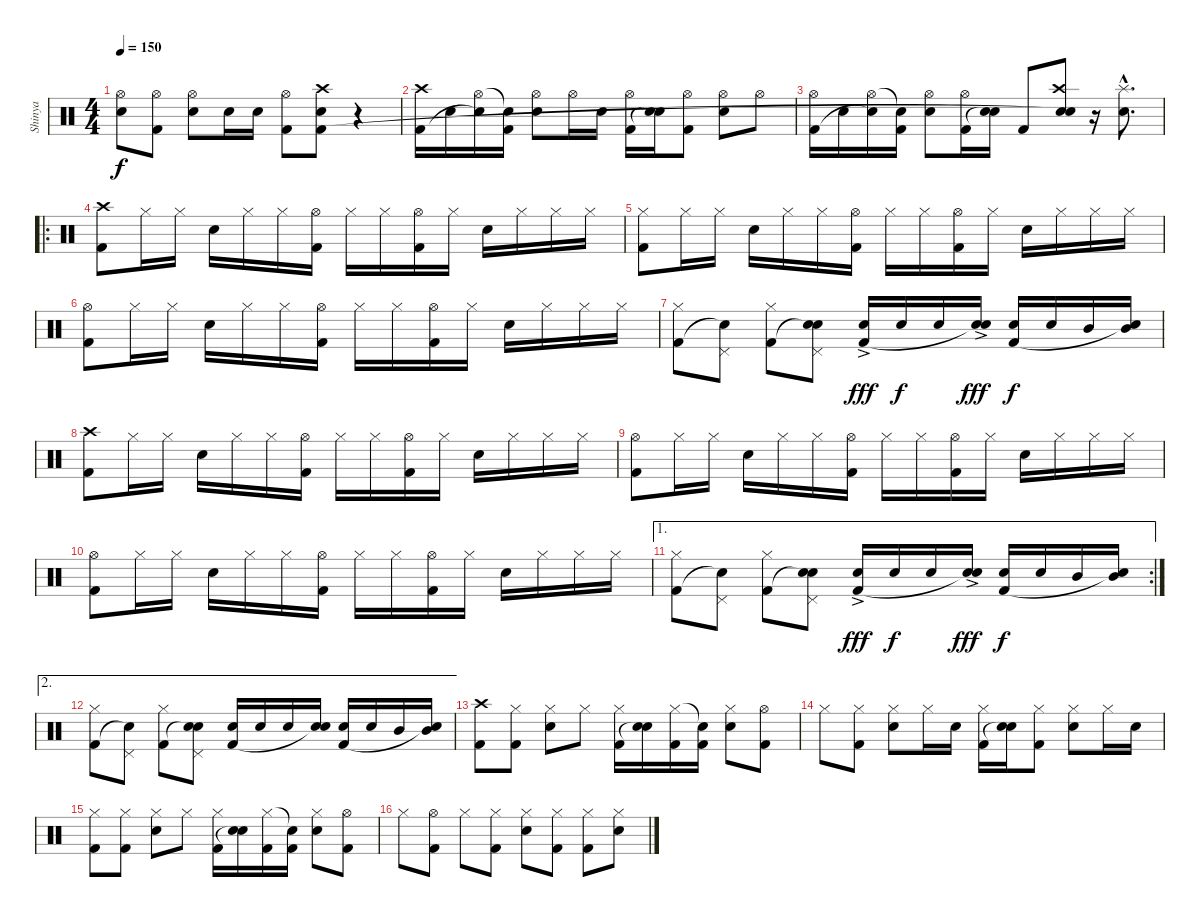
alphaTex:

\track ("Shinya" "Shinya") {instrument percussion}
\staff {score}
\articulation defaults
\ts (4 4)
\tempo 150
\clef neutral
\ks c
("Hi-Hat (open)" "Electric Snare (hit)").8{dy f} ("Hi-Hat (open)" "Kick (hit) 2").8 ("Hi-Hat (open)" "Electric Snare (hit)").8 "Electric Snare (hit)".16 "Electric Snare (hit)".16 ("Hi-Hat (open)" "Kick (hit) 2").8 ("Crash high (hit)" "Electric Snare (hit)" "Kick (hit) 2").8 r.4 |
("Crash high (hit)" "Kick (hit) 2").16 "Electric Snare (hit)".16 ("Hi-Hat (open)" "Snare (hit)"{t}).16 ("Snare (hit)"{t} "Kick (hit) 2").16 ("Hi-Hat (open)" "Electric Snare (hit)").8 "Hi-Hat (open)".16 "Electric Snare (hit)".16 ("Hi-Hat (open)" "Kick (hit) 2").16 ("Electric Snare (hit)" "Snare (hit)"{t}).16 ("Hi-Hat (open)" "Kick (hit) 2").8 ("Hi-Hat (open)" "Electric Snare (hit)").8 "Hi-Hat (open)".8 |
("Hi-Hat (open)" "Kick (hit) 2").16 "Electric Snare (hit)".16 ("Hi-Hat (open)" "Snare (hit)"{t}).16 ("Snare (hit)"{t} "Kick (hit) 2").16 ("Hi-Hat (open)" "Electric Snare (hit)").8 ("Hi-Hat (open)" "Kick (hit) 2").16 ("Electric Snare (hit)" "Snare (hit)"{t}).16 "Kick (hit) 2".8 ("Crash high (hit)" "Electric Snare (hit)" "Snare (hit)"{t}).8 r.16 ("Splash (hit)"{hac} "Electric Snare (hit)"{hac}).8{d} |
\ro
("Crash high (hit)" "Kick (hit) 2").8 "Hi-Hat (closed)".16 "Hi-Hat (closed)".16 "Electric Snare (hit)".16 "Hi-Hat (closed)".16 "Hi-Hat (closed)".16 ("Hi-Hat (open)" "Kick (hit) 2").16 "Hi-Hat (closed)".16 "Hi-Hat (closed)".16 ("Hi-Hat (open)" "Kick (hit) 2").16 "Hi-Hat (closed)".16 "Electric Snare (hit)".16 "Hi-Hat (closed)".16 "Hi-Hat (closed)".16 "Hi-Hat (closed)".16 |
("Hi-Hat (closed)" "Kick (hit) 2").8 "Hi-Hat (closed)".16 "Hi-Hat (closed)".16 "Electric Snare (hit)".16 "Hi-Hat (closed)".16 "Hi-Hat (closed)".16 ("Hi-Hat (open)" "Kick (hit) 2").16 "Hi-Hat (closed)".16 "Hi-Hat (closed)".16 ("Hi-Hat (open)" "Kick (hit) 2").16 "Hi-Hat (closed)".16 "Electric Snare (hit)".16 "Hi-Hat (closed)".16 "Hi-Hat (closed)".16 "Hi-Hat (closed)".16 |
("Hi-Hat (open)" "Kick (hit) 2").8 "Hi-Hat (closed)".16 "Hi-Hat (closed)".16 "Electric Snare (hit)".16 "Hi-Hat (closed)".16 "Hi-Hat (closed)".16 ("Hi-Hat (open)" "Kick (hit) 2").16 "Hi-Hat (closed)".16 "Hi-Hat (closed)".16 ("Hi-Hat (open)" "Kick (hit) 2").16 "Hi-Hat (closed)".16 "Electric Snare (hit)".16 "Hi-Hat (closed)".16 "Hi-Hat (closed)".16 "Hi-Hat (closed)".16 |
("Hi-Hat (closed)" "Kick (hit) 2").8 ("Pedal Hi-Hat (hit)" "Snare (hit)"{t}).8 ("Hi-Hat (closed)" "Kick (hit) 2").8 ("Pedal Hi-Hat (hit)" "Snare (hit)"{t} "Electric Snare (hit)").8 ("Electric Snare (hit)"{ac} "Kick (hit) 2").16{dy fff} "Electric Snare (hit)".16{dy f} "Electric Snare (hit)".16 ("Electric Snare (hit)"{ac} "Snare (hit)"{t}).16{dy fff} ("Electric Snare (hit)" "Kick (hit) 2").16{dy f} "Electric Snare (hit)".16 "Mid Tom (hit)".16 ("Mid Tom (hit)" "Snare (hit)"{t}).16 |
("Crash high (hit)" "Kick (hit) 2").8 "Hi-Hat (closed)".16 "Hi-Hat (closed)".16 "Electric Snare (hit)".16 "Hi-Hat (closed)".16 "Hi-Hat (closed)".16 ("Hi-Hat (open)" "Kick (hit) 2").16 "Hi-Hat (closed)".16 "Hi-Hat (closed)".16 ("Hi-Hat (open)" "Kick (hit) 2").16 "Hi-Hat (closed)".16 "Electric Snare (hit)".16 "Hi-Hat (closed)".16 "Hi-Hat (closed)".16 "Hi-Hat (closed)".16 |
("Hi-Hat (open)" "Kick (hit) 2").8 "Hi-Hat (closed)".16 "Hi-Hat (closed)".16 "Electric Snare (hit)".16 "Hi-Hat (closed)".16 "Hi-Hat (closed)".16 ("Hi-Hat (open)" "Kick (hit) 2").16 "Hi-Hat (closed)".16 "Hi-Hat (closed)".16 ("Hi-Hat (open)" "Kick (hit) 2").16 "Hi-Hat (closed)".16 "Electric Snare (hit)".16 "Hi-Hat (closed)".16 "Hi-Hat (closed)".16 "Hi-Hat (closed)".16 |
("Hi-Hat (open)" "Kick (hit) 2").8 "Hi-Hat (closed)".16 "Hi-Hat (closed)".16 "Electric Snare (hit)".16 "Hi-Hat (closed)".16 "Hi-Hat (closed)".16 ("Hi-Hat (open)" "Kick (hit) 2").16 "Hi-Hat (closed)".16 "Hi-Hat (closed)".16 ("Hi-Hat (open)" "Kick (hit) 2").16 "Hi-Hat (closed)".16 "Electric Snare (hit)".16 "Hi-Hat (closed)".16 "Hi-Hat (closed)".16 "Hi-Hat (closed)".16 |
\ae 1
\rc 2
("Hi-Hat (closed)" "Kick (hit) 2").8 ("Pedal Hi-Hat (hit)" "Snare (hit)"{t}).8 ("Hi-Hat (closed)" "Kick (hit) 2").8 ("Pedal Hi-Hat (hit)" "Snare (hit)"{t} "Electric Snare (hit)").8 ("Electric Snare (hit)"{ac} "Kick (hit) 2").16{dy fff} "Electric Snare (hit)".16{dy f} "Electric Snare (hit)".16 ("Electric Snare (hit)"{ac} "Snare (hit)"{t}).16{dy fff} ("Electric Snare (hit)" "Kick (hit) 2").16{dy f} "Electric Snare (hit)".16 "Mid Tom (hit)".16 ("Mid Tom (hit)" "Snare (hit)"{t}).16 |
\ae 2
("Hi-Hat (closed)" "Kick (hit) 2").8 ("Pedal Hi-Hat (hit)" "Snare (hit)"{t}).8 ("Hi-Hat (closed)" "Kick (hit) 2").8 ("Pedal Hi-Hat (hit)" "Electric Snare (hit)"{t} "Electric Snare (hit)").8 ("Electric Snare (hit)" "Kick (hit) 2").16 "Electric Snare (hit)".16 "Electric Snare (hit)".16 ("Electric Snare (hit)" "Snare (hit)"{t}).16 ("Electric Snare (hit)" "Kick (hit) 2").16 "Electric Snare (hit)".16 "Mid Tom (hit)".16 ("Mid Tom (hit)" "Snare (hit)"{t}).16 |
("Crash high (hit)" "Kick (hit) 2").8 ("Hi-Hat (closed)" "Kick (hit) 2").8 ("Hi-Hat (closed)" "Electric Snare (hit)").8 "Hi-Hat (closed)".8 ("Hi-Hat (closed)" "Kick (hit) 2").16 ("Electric Snare (hit)" "Snare (hit)"{t}).16 ("Hi-Hat (closed)" "Kick (hit) 2").16 ("Snare (hit)"{t} "Kick (hit) 2").16 ("Hi-Hat (closed)" "Electric Snare (hit)").8 ("Hi-Hat (open)" "Kick (hit) 2").8 |
"Hi-Hat (closed)".8 ("Hi-Hat (closed)" "Kick (hit) 2").8 ("Hi-Hat (closed)" "Electric Snare (hit)").8 "Hi-Hat (closed)".16 "Electric Snare (hit)".16 ("Hi-Hat (closed)" "Kick (hit) 2").16 ("Electric Snare (hit)" "Snare (hit)"{t}).16 ("Hi-Hat (closed)" "Kick (hit) 2").8 ("Hi-Hat (closed)" "Electric Snare (hit)").8 "Hi-Hat (closed)".16 "Electric Snare (hit)".16 |
("Hi-Hat (closed)" "Kick (hit) 2").8 ("Hi-Hat (closed)" "Kick (hit) 2").8 ("Hi-Hat (closed)" "Electric Snare (hit)").8 "Hi-Hat (closed)".8 ("Hi-Hat (closed)" "Kick (hit) 2").16 ("Electric Snare (hit)" "Snare (hit)"{t}).16 ("Hi-Hat (closed)" "Kick (hit) 2").16 ("Snare (hit)"{t} "Kick (hit) 2").16 ("Hi-Hat (closed)" "Electric Snare (hit)").8 ("Hi-Hat (open)" "Kick (hit) 2").8 |
"Hi-Hat (closed)".8 ("Hi-Hat (open)" "Kick (hit) 2").8 "Hi-Hat (closed)".8 ("Hi-Hat (closed)" "Kick (hit) 2").8 ("Hi-Hat (closed)" "Electric Snare (hit)").8 ("Hi-Hat (closed)" "Kick (hit) 2").8 ("Hi-Hat (closed)" "Kick (hit) 2").8 ("Hi-Hat (closed)" "Electric Snare (hit)").8
